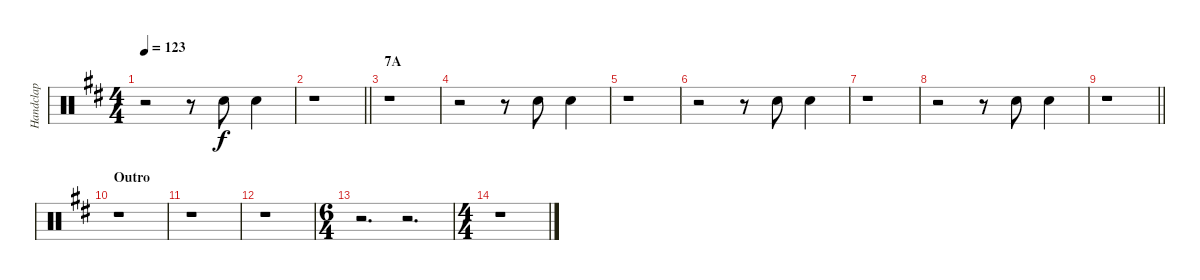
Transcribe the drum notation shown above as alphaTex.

\track ("Handclap" "Handclap") {instrument percussion}
\staff {score}
\articulation defaults
\ts (4 4)
\tempo 123
\clef neutral
\ks d
r.2{dy f} r.8 "Hand Clap (hit)".8 "Hand Clap (hit)".4 |
\barLineRight lightlight
r.1 |
\section ("" "7A")
r.1 |
r.2 r.8 "Hand Clap (hit)".8 "Hand Clap (hit)".4 |
r.1 |
r.2 r.8 "Hand Clap (hit)".8 "Hand Clap (hit)".4 |
r.1 |
r.2 r.8 "Hand Clap (hit)".8 "Hand Clap (hit)".4 |
\barLineRight lightlight
r.1 |
\section ("" "Outro")
r.1 |
r.1 |
r.1 |
\ts (6 4)
r.2{d} r.2{d} |
\ts (4 4)
r.1
